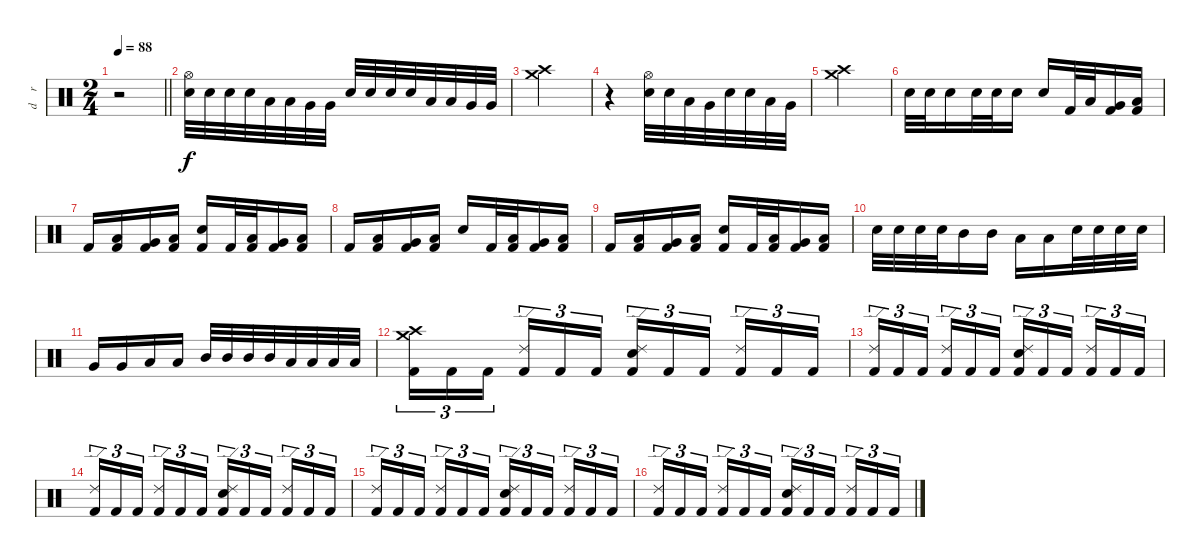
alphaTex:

\track ("d    r     u    m    s" "d    r    ") {instrument percussion}
\staff {score}
\articulation defaults
\ts (2 4)
\tempo 88
\clef neutral
\barLineRight lightlight
\ks c
r.2{dy f} |
("Hi-Hat (open)" "Snare (hit) 2").32 "Snare (hit) 2".32 "Snare (hit) 2".32 "Snare (hit) 2".32 "Low Tom (hit)".32 "Low Tom (hit)".32 "Very Low Tom (hit)".32 "Very Low Tom (hit)".32 "Electric Snare (hit)".32 "Electric Snare (hit)".32 "Electric Snare (hit)".32 "Electric Snare (hit)".32 "Low Tom (hit)".32 "Low Tom (hit)".32 "Very Low Tom (hit)".32 "Very Low Tom (hit)".32 |
("Crash high (hit)" "Crash medium (hit)").2 |
r.4 ("Hi-Hat (open)" "Electric Snare (hit)").32 "Electric Snare (hit)".32 "Low Tom (hit)".32 "Very Low Tom (hit)".32 "Electric Snare (hit)".32 "Electric Snare (hit)".32 "Low Tom (hit)".32 "Very Low Tom (hit)".32 |
("Crash high (hit)" "Crash medium (hit)").2 |
"Electric Snare (hit)".32 "Electric Snare (hit)".32 "Electric Snare (hit)".16 "Electric Snare (hit)".32 "Electric Snare (hit)".32 "Electric Snare (hit)".16 "Electric Snare (hit)".16 "Kick (hit) 2".32 "Low Tom (hit)".32 ("Very Low Tom (hit)" "Kick (hit) 2").16 ("Low Floor Tom (hit)" "Kick (hit) 2").16 |
"Kick (hit) 2".16 ("Low Tom (hit)" "Kick (hit) 2").16 ("Very Low Tom (hit)" "Kick (hit) 2").16 ("Low Floor Tom (hit)" "Kick (hit) 2").16 ("Electric Snare (hit)" "Kick (hit) 2").16 "Kick (hit) 2".32 ("Low Tom (hit)" "Kick (hit) 2").32 ("Very Low Tom (hit)" "Kick (hit) 2").16 ("Low Floor Tom (hit)" "Kick (hit) 2").16 |
"Kick (hit) 2".16 ("Low Tom (hit)" "Kick (hit) 2").16 ("Very Low Tom (hit)" "Kick (hit) 2").16 ("Low Floor Tom (hit)" "Kick (hit) 2").16 "Electric Snare (hit)".16 "Kick (hit) 2".32 ("Low Tom (hit)" "Kick (hit) 2").32 ("Very Low Tom (hit)" "Kick (hit) 2").16 ("Low Floor Tom (hit)" "Kick (hit) 2").16 |
"Kick (hit) 2".16 ("Low Tom (hit)" "Kick (hit) 2").16 ("Very Low Tom (hit)" "Kick (hit) 2").16 ("Low Floor Tom (hit)" "Kick (hit) 2").16 ("Electric Snare (hit)" "Kick (hit) 2").16 "Kick (hit) 2".32 ("Low Tom (hit)" "Kick (hit) 2").32 ("Very Low Tom (hit)" "Kick (hit) 2").16 ("Low Floor Tom (hit)" "Kick (hit) 2").16 |
"Electric Snare (hit)".32 "Electric Snare (hit)".32 "Electric Snare (hit)".32 "Electric Snare (hit)".32 "Mid Tom (hit)".16 "Mid Tom (hit)".16 "Low Tom (hit)".16 "Low Tom (hit)".16 "Electric Snare (hit)".32 "Electric Snare (hit)".32 "Electric Snare (hit)".32 "Electric Snare (hit)".32 |
"Very Low Tom (hit)".16 "Very Low Tom (hit)".16 "Low Floor Tom (hit)".16 "Low Floor Tom (hit)".16 "Mid Tom (hit)".32 "Mid Tom (hit)".32 "Mid Tom (hit)".32 "Mid Tom (hit)".32 "Low Tom (hit)".32 "Low Tom (hit)".32 "Low Tom (hit)".32 "Low Tom (hit)".32 |
("Crash high (hit)" "Crash medium (hit)" "Kick (hit) 2").16{tu (3 2)} "Kick (hit) 2".16{tu (3 2)} "Kick (hit) 2".16{tu (3 2) beam splitsecondary} ("Ride (edge) 2" "Kick (hit) 2").16{tu (3 2)} "Kick (hit) 2".16{tu (3 2)} "Kick (hit) 2".16{tu (3 2)} ("Ride (edge) 2" "Electric Snare (hit)" "Kick (hit) 2").16{tu (3 2)} "Kick (hit) 2".16{tu (3 2)} "Kick (hit) 2".16{tu (3 2) beam splitsecondary} ("Ride (edge) 2" "Kick (hit) 2").16{tu (3 2)} "Kick (hit) 2".16{tu (3 2)} "Kick (hit) 2".16{tu (3 2)} |
("Ride (edge) 2" "Kick (hit) 2").16{tu (3 2)} "Kick (hit) 2".16{tu (3 2)} "Kick (hit) 2".16{tu (3 2) beam splitsecondary} ("Ride (edge) 2" "Kick (hit) 2").16{tu (3 2)} "Kick (hit) 2".16{tu (3 2)} "Kick (hit) 2".16{tu (3 2)} ("Ride (edge) 2" "Electric Snare (hit)" "Kick (hit) 2").16{tu (3 2)} "Kick (hit) 2".16{tu (3 2)} "Kick (hit) 2".16{tu (3 2) beam splitsecondary} ("Ride (edge) 2" "Kick (hit) 2").16{tu (3 2)} "Kick (hit) 2".16{tu (3 2)} "Kick (hit) 2".16{tu (3 2)} |
("Ride (edge) 2" "Kick (hit) 2").16{tu (3 2)} "Kick (hit) 2".16{tu (3 2)} "Kick (hit) 2".16{tu (3 2) beam splitsecondary} ("Ride (edge) 2" "Kick (hit) 2").16{tu (3 2)} "Kick (hit) 2".16{tu (3 2)} "Kick (hit) 2".16{tu (3 2)} ("Ride (edge) 2" "Electric Snare (hit)" "Kick (hit) 2").16{tu (3 2)} "Kick (hit) 2".16{tu (3 2)} "Kick (hit) 2".16{tu (3 2) beam splitsecondary} ("Ride (edge) 2" "Kick (hit) 2").16{tu (3 2)} "Kick (hit) 2".16{tu (3 2)} "Kick (hit) 2".16{tu (3 2)} |
("Ride (edge) 2" "Kick (hit) 2").16{tu (3 2)} "Kick (hit) 2".16{tu (3 2)} "Kick (hit) 2".16{tu (3 2) beam splitsecondary} ("Ride (edge) 2" "Kick (hit) 2").16{tu (3 2)} "Kick (hit) 2".16{tu (3 2)} "Kick (hit) 2".16{tu (3 2)} ("Ride (edge) 2" "Electric Snare (hit)" "Kick (hit) 2").16{tu (3 2)} "Kick (hit) 2".16{tu (3 2)} "Kick (hit) 2".16{tu (3 2) beam splitsecondary} ("Ride (edge) 2" "Kick (hit) 2").16{tu (3 2)} "Kick (hit) 2".16{tu (3 2)} "Kick (hit) 2".16{tu (3 2)} |
("Ride (edge) 2" "Kick (hit) 2").16{tu (3 2)} "Kick (hit) 2".16{tu (3 2)} "Kick (hit) 2".16{tu (3 2) beam splitsecondary} ("Ride (edge) 2" "Kick (hit) 2").16{tu (3 2)} "Kick (hit) 2".16{tu (3 2)} "Kick (hit) 2".16{tu (3 2)} ("Ride (edge) 2" "Electric Snare (hit)" "Kick (hit) 2").16{tu (3 2)} "Kick (hit) 2".16{tu (3 2)} "Kick (hit) 2".16{tu (3 2) beam splitsecondary} ("Ride (edge) 2" "Kick (hit) 2").16{tu (3 2)} "Kick (hit) 2".16{tu (3 2)} "Kick (hit) 2".16{tu (3 2)}
